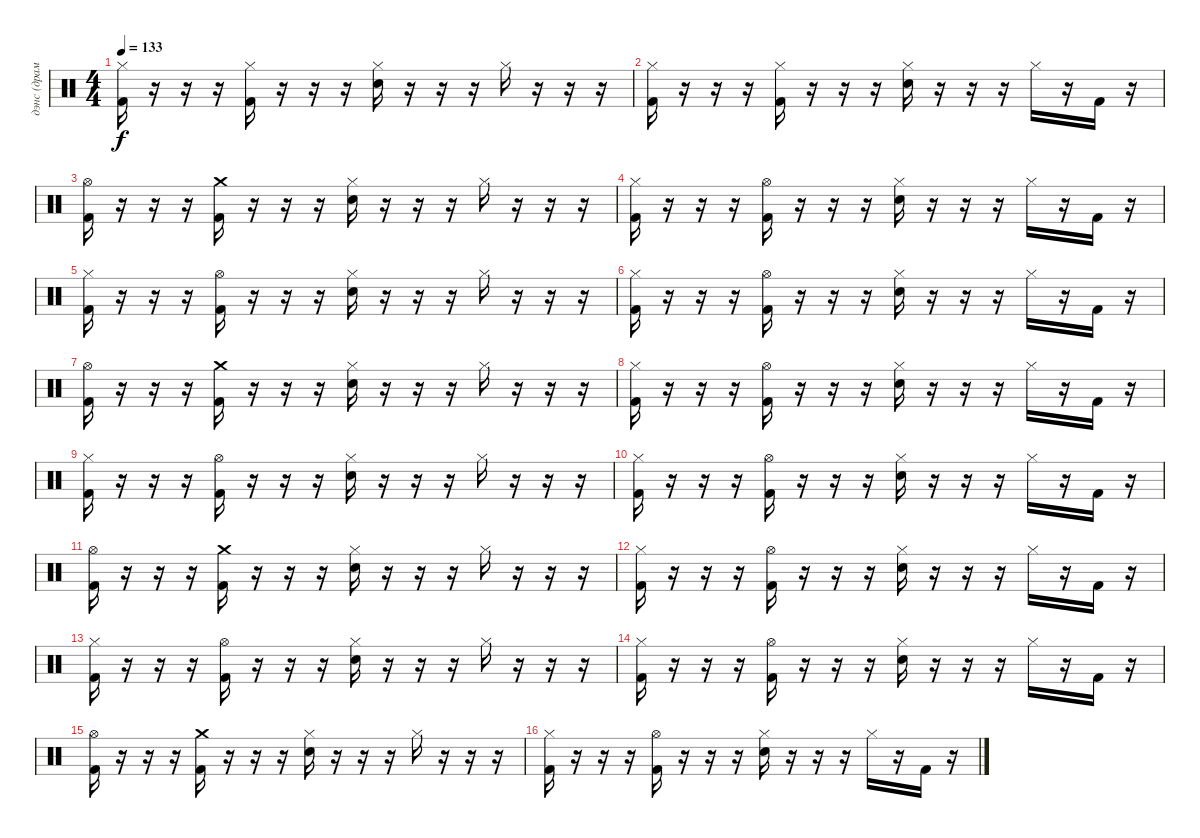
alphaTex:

\track ("дэнс (драммы)" "дэнс (драм") {instrument percussion}
\staff {score}
\articulation defaults
\ts (4 4)
\tempo 133
\clef neutral
\ks c
("Kick (hit) 2" "Hi-Hat (closed)").16{dy f} r.16 r.16 r.16 ("Kick (hit) 2" "Hi-Hat (closed)").16 r.16 r.16 r.16 ("Snare (hit) 2" "Hi-Hat (closed)").16 r.16 r.16 r.16 "Hi-Hat (closed)".16 r.16 r.16 r.16 |
("Kick (hit) 2" "Hi-Hat (closed)").16 r.16 r.16 r.16 ("Kick (hit) 2" "Hi-Hat (closed)").16 r.16 r.16 r.16 ("Snare (hit) 2" "Hi-Hat (closed)").16 r.16 r.16 r.16 "Hi-Hat (closed)".16 r.16 "Kick (hit) 2".16 r.16 |
("Kick (hit) 2" "Hi-Hat (open)").16 r.16 r.16 r.16 ("Kick (hit) 2" "Crash medium (hit)").16 r.16 r.16 r.16 ("Snare (hit) 2" "Hi-Hat (closed)").16 r.16 r.16 r.16 "Hi-Hat (closed)".16 r.16 r.16 r.16 |
("Kick (hit) 2" "Hi-Hat (closed)").16 r.16 r.16 r.16 ("Kick (hit) 2" "Hi-Hat (open)").16 r.16 r.16 r.16 ("Snare (hit) 2" "Hi-Hat (closed)").16 r.16 r.16 r.16 "Hi-Hat (closed)".16 r.16 "Kick (hit) 2".16 r.16 |
("Kick (hit) 2" "Hi-Hat (closed)").16 r.16 r.16 r.16 ("Kick (hit) 2" "Hi-Hat (open)").16 r.16 r.16 r.16 ("Snare (hit) 2" "Hi-Hat (closed)").16 r.16 r.16 r.16 "Hi-Hat (closed)".16 r.16 r.16 r.16 |
("Kick (hit) 2" "Hi-Hat (closed)").16 r.16 r.16 r.16 ("Kick (hit) 2" "Hi-Hat (open)").16 r.16 r.16 r.16 ("Snare (hit) 2" "Hi-Hat (closed)").16 r.16 r.16 r.16 "Hi-Hat (closed)".16 r.16 "Kick (hit) 2".16 r.16 |
("Kick (hit) 2" "Hi-Hat (open)").16 r.16 r.16 r.16 ("Kick (hit) 2" "Crash medium (hit)").16 r.16 r.16 r.16 ("Snare (hit) 2" "Hi-Hat (closed)").16 r.16 r.16 r.16 "Hi-Hat (closed)".16 r.16 r.16 r.16 |
("Kick (hit) 2" "Hi-Hat (closed)").16 r.16 r.16 r.16 ("Kick (hit) 2" "Hi-Hat (open)").16 r.16 r.16 r.16 ("Snare (hit) 2" "Hi-Hat (closed)").16 r.16 r.16 r.16 "Hi-Hat (closed)".16 r.16 "Kick (hit) 2".16 r.16 |
("Kick (hit) 2" "Hi-Hat (closed)").16 r.16 r.16 r.16 ("Kick (hit) 2" "Hi-Hat (open)").16 r.16 r.16 r.16 ("Snare (hit) 2" "Hi-Hat (closed)").16 r.16 r.16 r.16 "Hi-Hat (closed)".16 r.16 r.16 r.16 |
("Kick (hit) 2" "Hi-Hat (closed)").16 r.16 r.16 r.16 ("Kick (hit) 2" "Hi-Hat (open)").16 r.16 r.16 r.16 ("Snare (hit) 2" "Hi-Hat (closed)").16 r.16 r.16 r.16 "Hi-Hat (closed)".16 r.16 "Kick (hit) 2".16 r.16 |
("Kick (hit) 2" "Hi-Hat (open)").16 r.16 r.16 r.16 ("Kick (hit) 2" "Crash medium (hit)").16 r.16 r.16 r.16 ("Snare (hit) 2" "Hi-Hat (closed)").16 r.16 r.16 r.16 "Hi-Hat (closed)".16 r.16 r.16 r.16 |
("Kick (hit) 2" "Hi-Hat (closed)").16 r.16 r.16 r.16 ("Kick (hit) 2" "Hi-Hat (open)").16 r.16 r.16 r.16 ("Snare (hit) 2" "Hi-Hat (closed)").16 r.16 r.16 r.16 "Hi-Hat (closed)".16 r.16 "Kick (hit) 2".16 r.16 |
("Kick (hit) 2" "Hi-Hat (closed)").16 r.16 r.16 r.16 ("Kick (hit) 2" "Hi-Hat (open)").16 r.16 r.16 r.16 ("Snare (hit) 2" "Hi-Hat (closed)").16 r.16 r.16 r.16 "Hi-Hat (closed)".16 r.16 r.16 r.16 |
("Kick (hit) 2" "Hi-Hat (closed)").16 r.16 r.16 r.16 ("Kick (hit) 2" "Hi-Hat (open)").16 r.16 r.16 r.16 ("Snare (hit) 2" "Hi-Hat (closed)").16 r.16 r.16 r.16 "Hi-Hat (closed)".16 r.16 "Kick (hit) 2".16 r.16 |
("Kick (hit) 2" "Hi-Hat (open)").16 r.16 r.16 r.16 ("Kick (hit) 2" "Crash medium (hit)").16 r.16 r.16 r.16 ("Snare (hit) 2" "Hi-Hat (closed)").16 r.16 r.16 r.16 "Hi-Hat (closed)".16 r.16 r.16 r.16 |
("Kick (hit) 2" "Hi-Hat (closed)").16 r.16 r.16 r.16 ("Kick (hit) 2" "Hi-Hat (open)").16 r.16 r.16 r.16 ("Snare (hit) 2" "Hi-Hat (closed)").16 r.16 r.16 r.16 "Hi-Hat (closed)".16 r.16 "Kick (hit) 2".16 r.16
